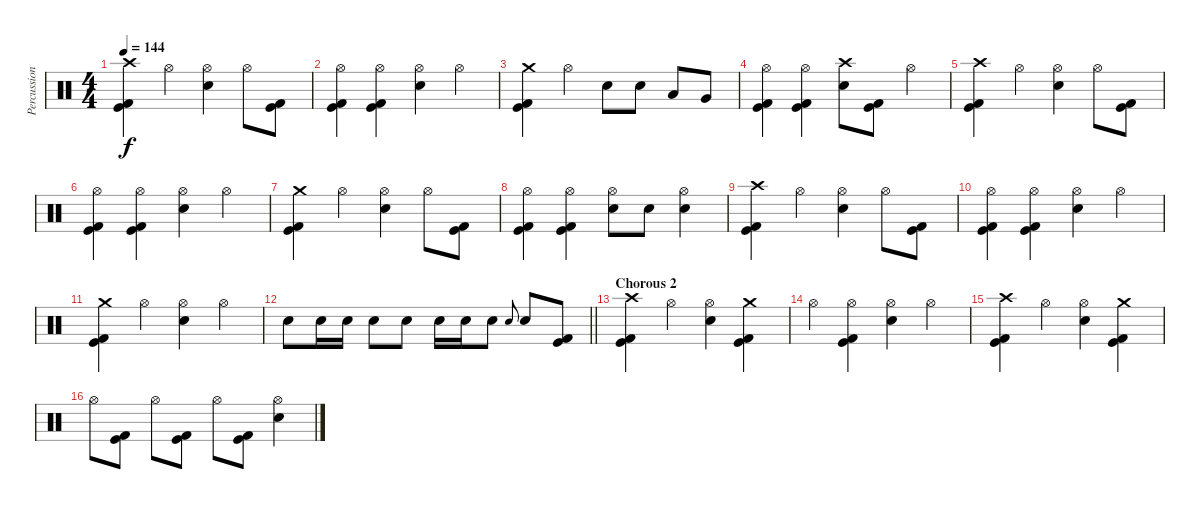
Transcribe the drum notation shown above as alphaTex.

\track ("Percussion" "Percussion") {instrument percussion}
\staff {score}
\articulation defaults
\ts (4 4)
\tempo 144
\clef neutral
\ks c
("Crash high (hit)" "Kick (hit)" "Kick (hit) 2").4{dy f} "Hi-Hat (open)".4 ("Hi-Hat (open)" "Electric Snare (hit)").4 "Hi-Hat (open)".8 ("Kick (hit)" "Kick (hit) 2").8 |
("Hi-Hat (open)" "Kick (hit)" "Kick (hit) 2").4 ("Hi-Hat (open)" "Kick (hit)" "Kick (hit) 2").4 ("Hi-Hat (open)" "Electric Snare (hit)").4 "Hi-Hat (open)".4 |
("Crash medium (hit)" "Kick (hit)" "Kick (hit) 2").4 "Hi-Hat (open)".4 "Electric Snare (hit)".8 "Electric Snare (hit)".8 "Low Tom (hit)".8 "Very Low Tom (hit)".8 |
("Hi-Hat (open)" "Kick (hit)" "Kick (hit) 2").4 ("Hi-Hat (open)" "Kick (hit)" "Kick (hit) 2").4 ("Crash high (hit)" "Electric Snare (hit)").8 ("Kick (hit)" "Kick (hit) 2").8 "Hi-Hat (open)".4 |
("Crash high (hit)" "Kick (hit)" "Kick (hit) 2").4 "Hi-Hat (open)".4 ("Hi-Hat (open)" "Electric Snare (hit)").4 "Hi-Hat (open)".8 ("Kick (hit)" "Kick (hit) 2").8 |
("Hi-Hat (open)" "Kick (hit)" "Kick (hit) 2").4 ("Hi-Hat (open)" "Kick (hit)" "Kick (hit) 2").4 ("Hi-Hat (open)" "Electric Snare (hit)").4 "Hi-Hat (open)".4 |
("Crash medium (hit)" "Kick (hit)" "Kick (hit) 2").4 "Hi-Hat (open)".4 ("Hi-Hat (open)" "Electric Snare (hit)").4 "Hi-Hat (open)".8 ("Kick (hit)" "Kick (hit) 2").8 |
("Hi-Hat (open)" "Kick (hit)" "Kick (hit) 2").4 ("Hi-Hat (open)" "Kick (hit)" "Kick (hit) 2").4 ("Hi-Hat (open)" "Electric Snare (hit)").8 "Electric Snare (hit)".8 ("Hi-Hat (open)" "Electric Snare (hit)").4 |
("Crash high (hit)" "Kick (hit)" "Kick (hit) 2").4 "Hi-Hat (open)".4 ("Hi-Hat (open)" "Electric Snare (hit)").4 "Hi-Hat (open)".8 ("Kick (hit)" "Kick (hit) 2").8 |
("Hi-Hat (open)" "Kick (hit)" "Kick (hit) 2").4 ("Hi-Hat (open)" "Kick (hit)" "Kick (hit) 2").4 ("Hi-Hat (open)" "Electric Snare (hit)").4 "Hi-Hat (open)".4 |
("Crash medium (hit)" "Kick (hit)" "Kick (hit) 2").4 "Hi-Hat (open)".4 ("Hi-Hat (open)" "Electric Snare (hit)").4 "Hi-Hat (open)".4 |
\barLineRight lightlight "Electric Snare (hit)".8 "Electric Snare (hit)".16 "Electric Snare (hit)".16 "Electric Snare (hit)".8 "Electric Snare (hit)".8 "Electric Snare (hit)".16 "Electric Snare (hit)".16 "Electric Snare (hit)".8 "Electric Snare (hit)".8{gr onbeat} "Electric Snare (hit)".8
("Kick (hit)" "Kick (hit) 2").8 |
\section ("" "Chorous 2")
("Crash high (hit)" "Kick (hit)" "Kick (hit) 2").4 "Hi-Hat (open)".4 ("Hi-Hat (open)" "Electric Snare (hit)").4 ("Crash medium (hit)" "Kick (hit)" "Kick (hit) 2").4 |
"Hi-Hat (open)".4 ("Hi-Hat (open)" "Kick (hit)" "Kick (hit) 2").4 ("Hi-Hat (open)" "Electric Snare (hit)").4 "Hi-Hat (open)".4 |
("Crash high (hit)" "Kick (hit)" "Kick (hit) 2").4 "Hi-Hat (open)".4 ("Hi-Hat (open)" "Electric Snare (hit)").4 ("Crash medium (hit)" "Kick (hit)" "Kick (hit) 2").4 |
"Hi-Hat (open)".8 ("Kick (hit)" "Kick (hit) 2").8 "Hi-Hat (open)".8 ("Kick (hit)" "Kick (hit) 2").8 "Hi-Hat (open)".8 ("Kick (hit)" "Kick (hit) 2").8 ("Hi-Hat (open)" "Electric Snare (hit)").4
